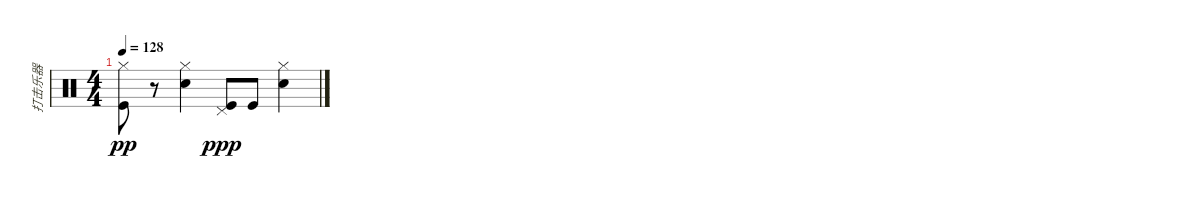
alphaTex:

\track ("打击乐器" "打击乐器") {instrument percussion}
\staff {score}
\articulation defaults
\ts (4 4)
\tempo 128
\clef neutral
\ks c
("Hi-Hat (closed)" "Kick (hit)").8{dy pp} r.8 ("Hi-Hat (closed)" "Snare (hit) 2").4 ("Pedal Hi-Hat (hit)" "Kick (hit)").8{dy ppp} "Kick (hit)".8 ("Hi-Hat (closed)" "Snare (hit) 2").4
